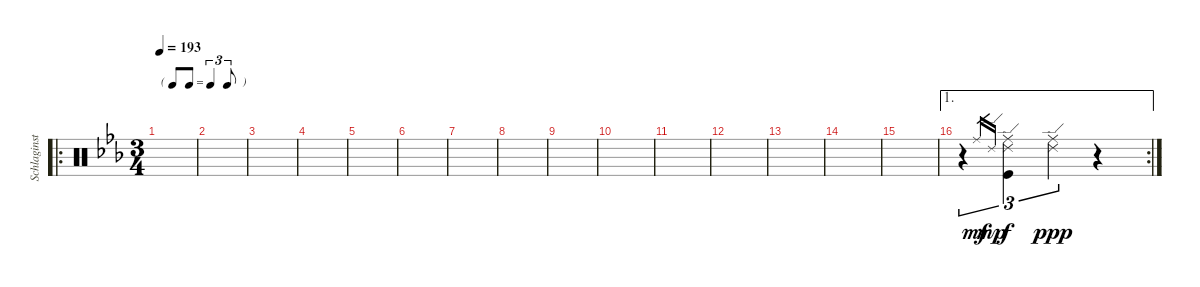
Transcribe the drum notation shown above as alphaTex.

\track ("Schlaginstrumente - Auswahl" "Schlaginst") {instrument percussion}
\staff {score}
\articulation defaults
\ro
\ts (3 4)
\tf triplet8th
\tempo 193
\clef neutral
\ks cminor
|
|
|
|
|
|
|
|
|
|
|
|
|
|
|
\ae 1
\rc 2
r.4{tu (3 2)} "Ride (middle)".16{gr dy mf} "Ride (edge) 2".16{gr dy mp} ("Ride (middle)" "Ride (edge) 2" "Kick (hit)").4{tu (3 2) dy f} ("Ride (middle)" "Ride (edge) 2").4{tu (3 2) dy ppp} r.4
